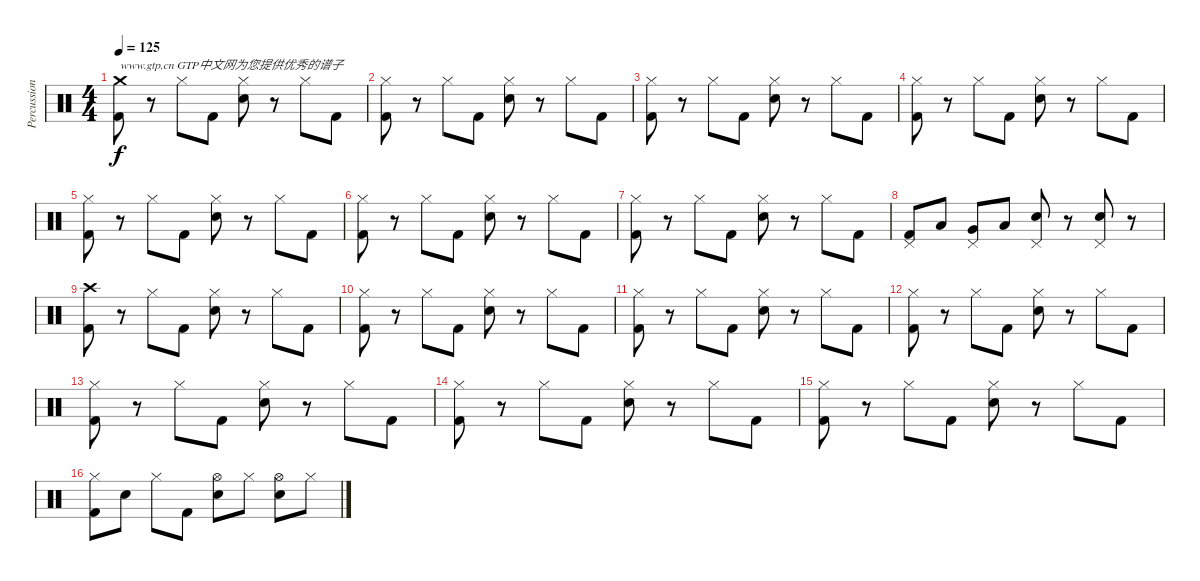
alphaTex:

\track ("Percussion" "Percussion") {instrument percussion}
\staff {score}
\articulation defaults
\ts (4 4)
\tempo 125
\clef neutral
\ks c
("Crash medium (hit)" "Kick (hit) 2").8{txt "www.gtp.cn GTP中文网为您提供优秀的谱子" dy f} r.8 "Hi-Hat (closed)".8 "Kick (hit) 2".8 ("Hi-Hat (closed)" "Metronome (bell)").8 r.8 "Hi-Hat (closed)".8 "Kick (hit) 2".8 |
("Hi-Hat (closed)" "Kick (hit) 2").8 r.8 "Hi-Hat (closed)".8 "Kick (hit) 2".8 ("Hi-Hat (closed)" "Metronome (bell)").8 r.8 "Hi-Hat (closed)".8 "Kick (hit) 2".8 |
("Hi-Hat (closed)" "Kick (hit) 2").8 r.8 "Hi-Hat (closed)".8 "Kick (hit) 2".8 ("Hi-Hat (closed)" "Metronome (bell)").8 r.8 "Hi-Hat (closed)".8 "Kick (hit) 2".8 |
("Hi-Hat (closed)" "Kick (hit) 2").8 r.8 "Hi-Hat (closed)".8 "Kick (hit) 2".8 ("Hi-Hat (closed)" "Metronome (bell)").8 r.8 "Hi-Hat (closed)".8 "Kick (hit) 2".8 |
("Hi-Hat (closed)" "Kick (hit) 2").8 r.8 "Hi-Hat (closed)".8 "Kick (hit) 2".8 ("Hi-Hat (closed)" "Metronome (bell)").8 r.8 "Hi-Hat (closed)".8 "Kick (hit) 2".8 |
("Hi-Hat (closed)" "Kick (hit) 2").8 r.8 "Hi-Hat (closed)".8 "Kick (hit) 2".8 ("Hi-Hat (closed)" "Metronome (bell)").8 r.8 "Hi-Hat (closed)".8 "Kick (hit) 2".8 |
("Hi-Hat (closed)" "Kick (hit) 2").8 r.8 "Hi-Hat (closed)".8 "Kick (hit) 2".8 ("Hi-Hat (closed)" "Metronome (bell)").8 r.8 "Hi-Hat (closed)".8 "Kick (hit) 2".8 |
("Pedal Hi-Hat (hit)" "Kick (hit) 2").8 "Low Tom (hit)".8 ("Pedal Hi-Hat (hit)" "Very Low Tom (hit)").8 "Low Floor Tom (hit)".8 ("Pedal Hi-Hat (hit)" "Metronome (bell)").8 r.8 ("Pedal Hi-Hat (hit)" "Metronome (bell)").8 r.8 |
("Crash high (hit)" "Kick (hit) 2").8 r.8 "Hi-Hat (closed)".8 "Kick (hit) 2".8 ("Hi-Hat (closed)" "Metronome (bell)").8 r.8 "Hi-Hat (closed)".8 "Kick (hit) 2".8 |
("Hi-Hat (closed)" "Kick (hit) 2").8 r.8 "Hi-Hat (closed)".8 "Kick (hit) 2".8 ("Hi-Hat (closed)" "Metronome (bell)").8 r.8 "Hi-Hat (closed)".8 "Kick (hit) 2".8 |
("Hi-Hat (closed)" "Kick (hit) 2").8 r.8 "Hi-Hat (closed)".8 "Kick (hit) 2".8 ("Hi-Hat (closed)" "Metronome (bell)").8 r.8 "Hi-Hat (closed)".8 "Kick (hit) 2".8 |
("Hi-Hat (closed)" "Kick (hit) 2").8 r.8 "Hi-Hat (closed)".8 "Kick (hit) 2".8 ("Hi-Hat (closed)" "Metronome (bell)").8 r.8 "Hi-Hat (closed)".8 "Kick (hit) 2".8 |
("Hi-Hat (closed)" "Kick (hit) 2").8 r.8 "Hi-Hat (closed)".8 "Kick (hit) 2".8 ("Hi-Hat (closed)" "Metronome (bell)").8 r.8 "Hi-Hat (closed)".8 "Kick (hit) 2".8 |
("Hi-Hat (closed)" "Kick (hit) 2").8 r.8 "Hi-Hat (closed)".8 "Kick (hit) 2".8 ("Hi-Hat (closed)" "Metronome (bell)").8 r.8 "Hi-Hat (closed)".8 "Kick (hit) 2".8 |
("Hi-Hat (closed)" "Kick (hit) 2").8 r.8 "Hi-Hat (closed)".8 "Kick (hit) 2".8 ("Hi-Hat (closed)" "Metronome (bell)").8 r.8 "Hi-Hat (closed)".8 "Kick (hit) 2".8 |
("Hi-Hat (closed)" "Kick (hit) 2").8 "Metronome (bell)".8 "Hi-Hat (closed)".8 "Kick (hit) 2".8 ("Hi-Hat (open)" "Metronome (bell)").8 "Hi-Hat (closed)".8 ("Hi-Hat (open)" "Metronome (bell)").8 "Hi-Hat (closed)".8
